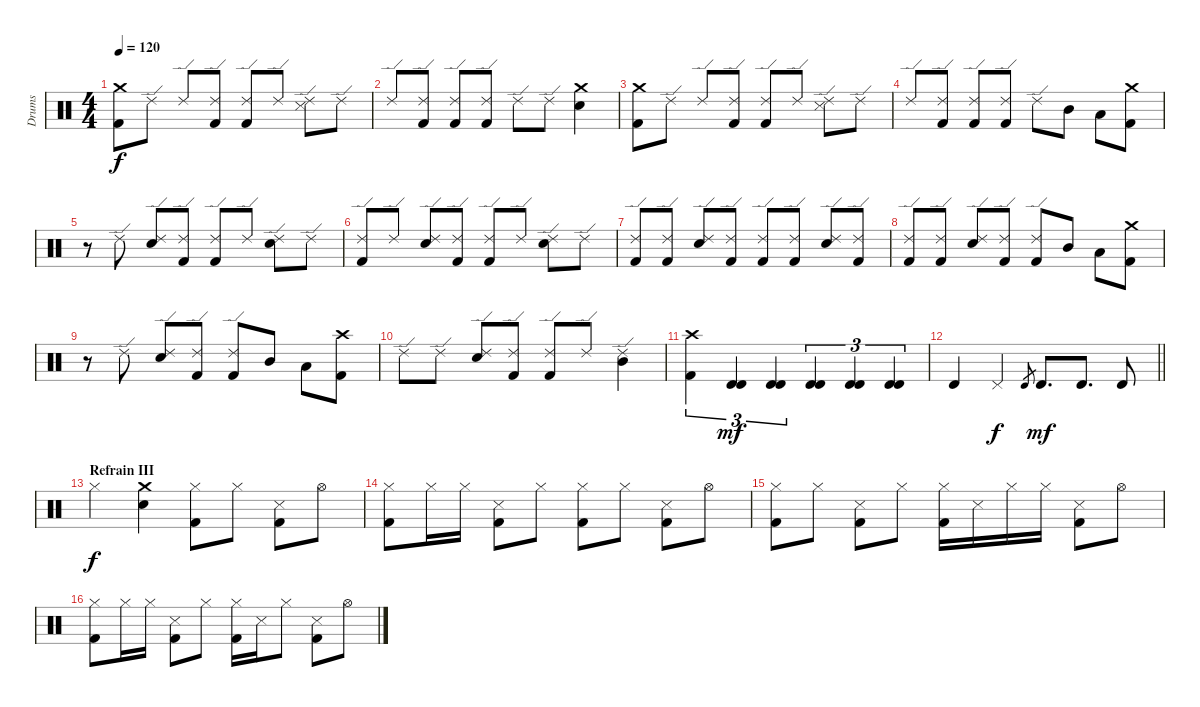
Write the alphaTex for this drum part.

\track ("Drums" "Drums") {instrument percussion}
\staff {score}
\articulation defaults
\ts (4 4)
\tempo 120
\clef neutral
\ks c
("Crash medium (hit)" "Kick (hit) 2").8{dy f} "Ride (edge) 2".8 "Ride (edge) 2".8 ("Ride (edge) 2" "Kick (hit) 2").8 ("Ride (edge) 2" "Kick (hit) 2").8 "Ride (edge) 2".8 ("Ride (edge) 2" "Snare (side stick) 3").8 "Ride (edge) 2".8 |
"Ride (edge) 2".8 ("Ride (edge) 2" "Kick (hit) 2").8 ("Ride (edge) 2" "Kick (hit) 2").8 ("Ride (edge) 2" "Kick (hit) 2").8 "Ride (edge) 2".8 "Ride (edge) 2".8 ("Crash medium (hit)" "Snare (hit) 2").4 |
("Crash medium (hit)" "Kick (hit) 2").8 "Ride (edge) 2".8 "Ride (edge) 2".8 ("Ride (edge) 2" "Kick (hit) 2").8 ("Ride (edge) 2" "Kick (hit) 2").8 "Ride (edge) 2".8 ("Ride (edge) 2" "Snare (side stick) 3").8 "Ride (edge) 2".8 |
"Ride (edge) 2".8 ("Ride (edge) 2" "Kick (hit) 2").8 ("Ride (edge) 2" "Kick (hit) 2").8 ("Ride (edge) 2" "Kick (hit) 2").8 "Ride (edge) 2".8 "Mid Tom (hit)".8 "Low Tom (hit)".8 ("Kick (hit) 2" "Crash medium (hit)").8 |
r.8 "Ride (edge) 2".8 ("Ride (edge) 2" "Snare (hit) 2").8 ("Ride (edge) 2" "Kick (hit) 2").8 ("Ride (edge) 2" "Kick (hit) 2").8 "Ride (edge) 2".8 ("Ride (edge) 2" "Snare (hit) 2").8 "Ride (edge) 2".8 |
("Ride (edge) 2" "Kick (hit) 2").8 "Ride (edge) 2".8 ("Ride (edge) 2" "Snare (hit) 2").8 ("Ride (edge) 2" "Kick (hit) 2").8 ("Ride (edge) 2" "Kick (hit) 2").8 "Ride (edge) 2".8 ("Ride (edge) 2" "Snare (hit) 2").8 "Ride (edge) 2".8 |
("Ride (edge) 2" "Kick (hit) 2").8 ("Ride (edge) 2" "Kick (hit) 2").8 ("Ride (edge) 2" "Snare (hit) 2").8 ("Ride (edge) 2" "Kick (hit) 2").8 ("Ride (edge) 2" "Kick (hit) 2").8 ("Ride (edge) 2" "Kick (hit) 2").8 ("Ride (edge) 2" "Snare (hit) 2").8 ("Ride (edge) 2" "Kick (hit) 2").8 |
("Ride (edge) 2" "Kick (hit) 2").8 ("Ride (edge) 2" "Kick (hit) 2").8 ("Ride (edge) 2" "Snare (hit) 2").8 ("Ride (edge) 2" "Kick (hit) 2").8 ("Ride (edge) 2" "Kick (hit) 2").8 "Mid Tom (hit)".8 "Low Tom (hit)".8 ("Crash medium (hit)" "Kick (hit) 2").8 |
r.8 "Ride (edge) 2".8 ("Ride (edge) 2" "Snare (hit) 2").8 ("Ride (edge) 2" "Kick (hit) 2").8 ("Ride (edge) 2" "Kick (hit) 2").8 "Mid Tom (hit)".8 "Low Tom (hit)".8 ("Crash high (hit)" "Kick (hit) 2").8 |
"Ride (edge) 2".8 "Ride (edge) 2".8 ("Ride (edge) 2" "Snare (hit) 2").8 ("Ride (edge) 2" "Kick (hit) 2").8 ("Ride (edge) 2" "Kick (hit) 2").8 "Ride (edge) 2".8 ("Ride (edge) 2" "Mid Tom (hit)").4 |
("Crash high (hit)" "Kick (hit) 2").4{tu (3 2)} ("Timbale high (hit)" "Timbale high (hit)").4{tu (3 2) bd 60 dy mf} ("Timbale high (hit)" "Timbale high (hit)").4{tu (3 2) bd 60} ("Timbale high (hit)" "Timbale high (hit)").4{tu (3 2) bd 60} ("Timbale high (hit)" "Timbale high (hit)").4{tu (3 2) bd 60} ("Timbale high (hit)" "Timbale high (hit)").4{tu (3 2) bd 60} |
\barLineRight lightlight "Timbale high (hit)".4 "Pedal Hi-Hat (hit)".4{dy f} "Timbale high (hit)".8{gr} "Timbale high (hit)".8{d dy mf} "Timbale high (hit)".8{d} "Timbale high (hit)".8
|
\section ("" "Refrain III")
"Hi-Hat (closed)".4{dy f} ("Crash medium (hit)" "Snare (hit) 2").4 ("Hi-Hat (closed)" "Kick (hit) 2").8 "Hi-Hat (closed)".8 ("Snare (side stick) 3" "Kick (hit) 2").8 "Hi-Hat (open)".8 |
("Hi-Hat (closed)" "Kick (hit) 2").8 "Hi-Hat (closed)".16 "Hi-Hat (closed)".16 ("Snare (side stick) 3" "Kick (hit) 2").8 "Hi-Hat (closed)".8 ("Hi-Hat (closed)" "Kick (hit) 2").8 "Hi-Hat (closed)".8 ("Snare (side stick) 3" "Kick (hit) 2").8 "Hi-Hat (open)".8 |
("Hi-Hat (closed)" "Kick (hit) 2").8 "Hi-Hat (closed)".8 ("Snare (side stick) 3" "Kick (hit) 2").8 "Hi-Hat (closed)".8 ("Hi-Hat (closed)" "Kick (hit) 2").16 "Snare (side stick) 3".16 "Hi-Hat (closed)".16 "Hi-Hat (closed)".16 ("Snare (side stick) 3" "Kick (hit) 2").8 "Hi-Hat (open)".8 |
("Hi-Hat (closed)" "Kick (hit) 2").8 "Hi-Hat (closed)".16 "Hi-Hat (closed)".16 ("Snare (side stick) 3" "Kick (hit) 2").8 "Hi-Hat (closed)".8 ("Hi-Hat (closed)" "Kick (hit) 2").16 "Snare (side stick) 3".16 "Hi-Hat (closed)".8 ("Snare (side stick) 3" "Kick (hit) 2").8 "Hi-Hat (open)".8
